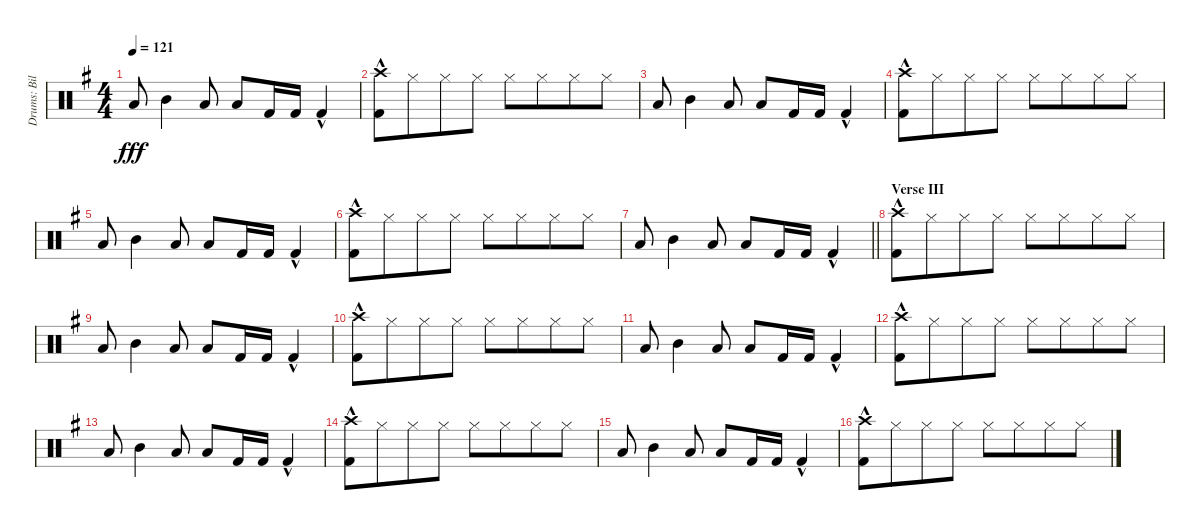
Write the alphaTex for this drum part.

\track ("Drums: Bill" "Drums: Bil") {instrument percussion}
\staff {score}
\articulation defaults
\ts (4 4)
\tempo 121
\clef neutral
\ks g "Low Tom (hit)".8{dy fff} "Mid Tom (hit)".4 "Low Tom (hit)".8 "Low Floor Tom (hit)".8 "Kick (hit) 2".16 "Kick (hit) 2".16 "Kick (hit) 2"{hac}.4
|
("Crash high (hit)" "Kick (hit) 2"{hac}).8 "Hi-Hat (closed)".8{beam merge} "Hi-Hat (closed)".8 "Hi-Hat (closed)".8 "Hi-Hat (closed)".8{beam merge} "Hi-Hat (closed)".8{beam merge} "Hi-Hat (closed)".8 "Hi-Hat (closed)".8 |
"Low Tom (hit)".8 "Mid Tom (hit)".4 "Low Tom (hit)".8 "Low Floor Tom (hit)".8 "Kick (hit) 2".16 "Kick (hit) 2".16 "Kick (hit) 2"{hac}.4 |
("Crash high (hit)" "Kick (hit) 2"{hac}).8 "Hi-Hat (closed)".8{beam merge} "Hi-Hat (closed)".8 "Hi-Hat (closed)".8 "Hi-Hat (closed)".8{beam merge} "Hi-Hat (closed)".8{beam merge} "Hi-Hat (closed)".8 "Hi-Hat (closed)".8 |
"Low Tom (hit)".8 "Mid Tom (hit)".4 "Low Tom (hit)".8 "Low Floor Tom (hit)".8 "Kick (hit) 2".16 "Kick (hit) 2".16 "Kick (hit) 2"{hac}.4 |
("Crash high (hit)" "Kick (hit) 2"{hac}).8 "Hi-Hat (closed)".8{beam merge} "Hi-Hat (closed)".8 "Hi-Hat (closed)".8 "Hi-Hat (closed)".8{beam merge} "Hi-Hat (closed)".8{beam merge} "Hi-Hat (closed)".8 "Hi-Hat (closed)".8 |
\barLineRight lightlight "Low Tom (hit)".8 "Mid Tom (hit)".4 "Low Tom (hit)".8 "Low Floor Tom (hit)".8 "Kick (hit) 2".16 "Kick (hit) 2".16 "Kick (hit) 2"{hac}.4
|
\section ("" "Verse III")
("Crash high (hit)" "Kick (hit) 2"{hac}).8 "Hi-Hat (closed)".8{beam merge} "Hi-Hat (closed)".8 "Hi-Hat (closed)".8 "Hi-Hat (closed)".8{beam merge} "Hi-Hat (closed)".8{beam merge} "Hi-Hat (closed)".8 "Hi-Hat (closed)".8 |
"Low Tom (hit)".8 "Mid Tom (hit)".4 "Low Tom (hit)".8 "Low Floor Tom (hit)".8 "Kick (hit) 2".16 "Kick (hit) 2".16 "Kick (hit) 2"{hac}.4 |
("Crash high (hit)" "Kick (hit) 2"{hac}).8 "Hi-Hat (closed)".8{beam merge} "Hi-Hat (closed)".8 "Hi-Hat (closed)".8 "Hi-Hat (closed)".8{beam merge} "Hi-Hat (closed)".8{beam merge} "Hi-Hat (closed)".8 "Hi-Hat (closed)".8 |
"Low Tom (hit)".8 "Mid Tom (hit)".4 "Low Tom (hit)".8 "Low Floor Tom (hit)".8 "Kick (hit) 2".16 "Kick (hit) 2".16 "Kick (hit) 2"{hac}.4 |
("Crash high (hit)" "Kick (hit) 2"{hac}).8 "Hi-Hat (closed)".8{beam merge} "Hi-Hat (closed)".8 "Hi-Hat (closed)".8 "Hi-Hat (closed)".8{beam merge} "Hi-Hat (closed)".8{beam merge} "Hi-Hat (closed)".8 "Hi-Hat (closed)".8 |
"Low Tom (hit)".8 "Mid Tom (hit)".4 "Low Tom (hit)".8 "Low Floor Tom (hit)".8 "Kick (hit) 2".16 "Kick (hit) 2".16 "Kick (hit) 2"{hac}.4 |
("Crash high (hit)" "Kick (hit) 2"{hac}).8 "Hi-Hat (closed)".8{beam merge} "Hi-Hat (closed)".8 "Hi-Hat (closed)".8 "Hi-Hat (closed)".8{beam merge} "Hi-Hat (closed)".8{beam merge} "Hi-Hat (closed)".8 "Hi-Hat (closed)".8 |
"Low Tom (hit)".8 "Mid Tom (hit)".4 "Low Tom (hit)".8 "Low Floor Tom (hit)".8 "Kick (hit) 2".16 "Kick (hit) 2".16 "Kick (hit) 2"{hac}.4 |
("Crash high (hit)" "Kick (hit) 2"{hac}).8 "Hi-Hat (closed)".8{beam merge} "Hi-Hat (closed)".8 "Hi-Hat (closed)".8 "Hi-Hat (closed)".8{beam merge} "Hi-Hat (closed)".8{beam merge} "Hi-Hat (closed)".8 "Hi-Hat (closed)".8
